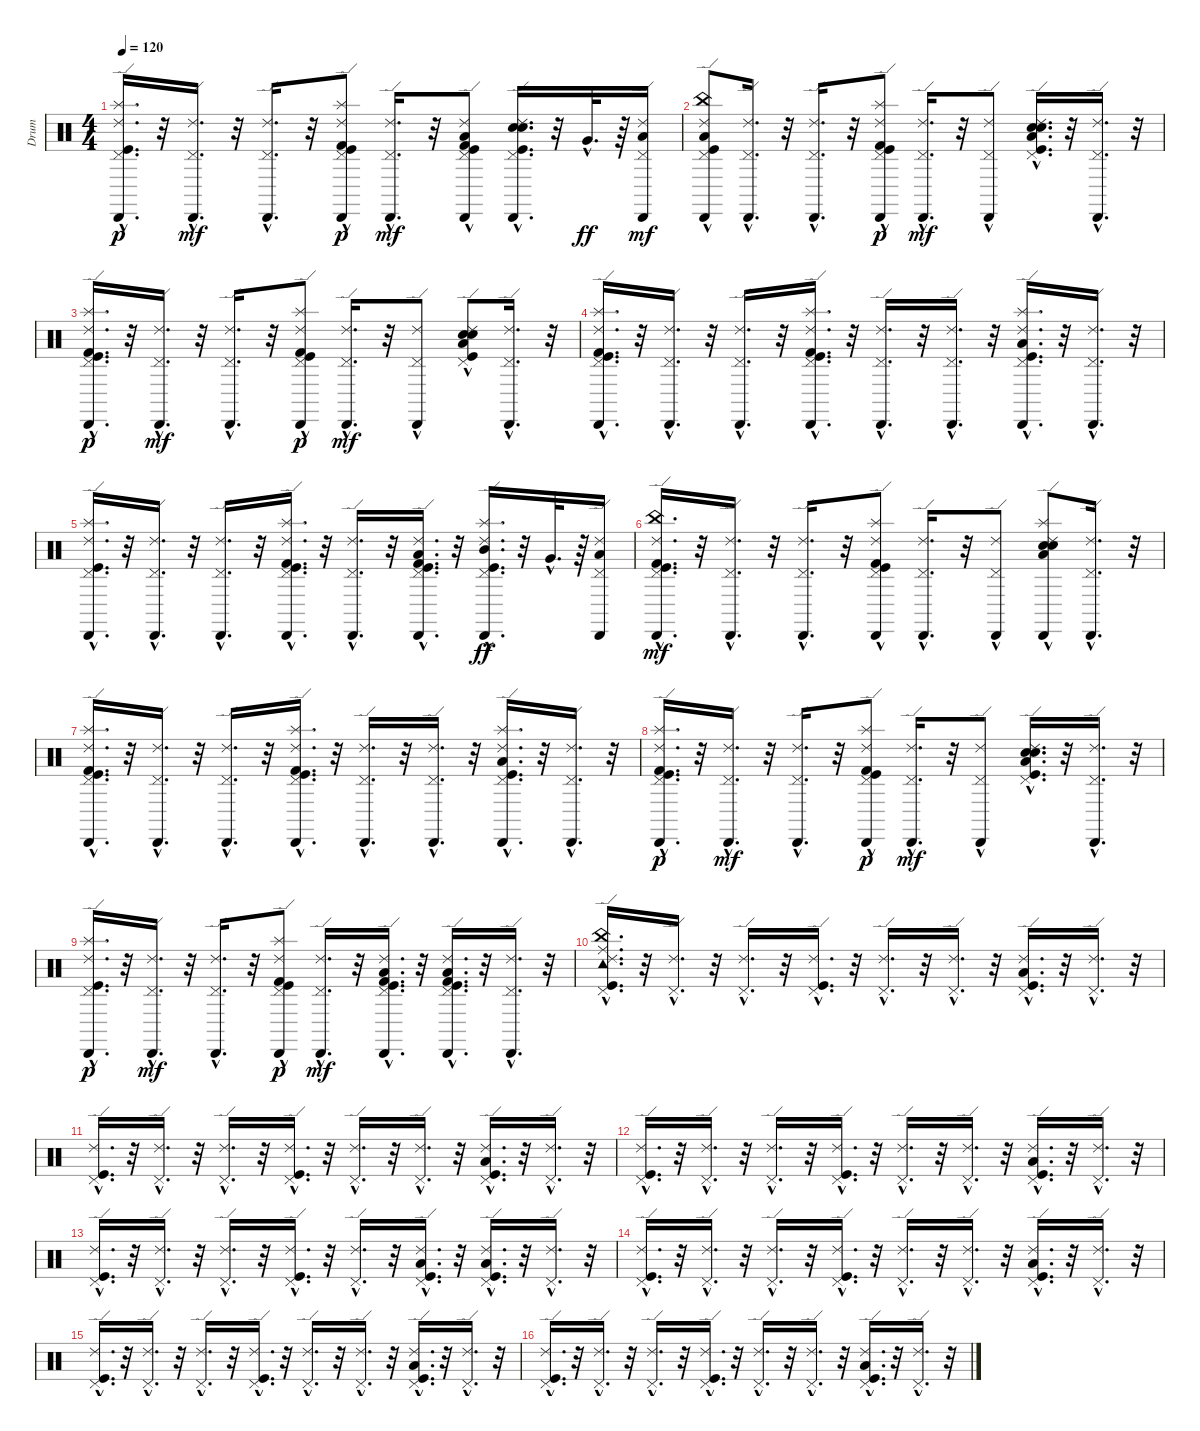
\track ("Drum" "Drum") {instrument percussion}
\staff {score}
\articulation defaults
\ts (4 4)
\tempo 120
\clef neutral
\ks c
("Pedal Hi-Hat (hit)"{hac} "Ride (edge) 2"{hac} "Cabasa (hit)"{hac} "Kick (hit)"{hac} "Splash (hit)"{hac}).16{d dy p} r.32 ("Pedal Hi-Hat (hit)"{hac} "Cabasa (hit)"{hac} "Ride (edge) 2"{hac}).16{d dy mf} r.32 ("Ride (edge) 2"{hac} "Pedal Hi-Hat (hit)"{hac} "Cabasa (hit)"{hac}).16{d} r.32 ("Pedal Hi-Hat (hit)"{hac} "Kick (hit)"{hac} "Ride (edge) 2"{hac} "Cabasa (hit)"{hac} "Kick (hit) 2"{hac} "Splash (hit)"{hac}).8{dy p} ("Ride (edge) 2"{hac} "Pedal Hi-Hat (hit)"{hac} "Cabasa (hit)"{hac}).16{d dy mf} r.32 ("Pedal Hi-Hat (hit)"{hac} "Kick (hit)"{hac} "Ride (edge) 2"{hac} "Kick (hit) 2"{hac} "Cabasa (hit)"{hac} "Low Tom (hit)"{hac}).8 ("Snare (hit) 2"{hac} "Electric Snare (hit)"{hac} "Cabasa (hit)"{hac} "Kick (hit)"{hac} "Ride (edge) 2"{hac} "Pedal Hi-Hat (hit)"{hac}).16{d} r.32 "Very Low Tom (hit)"{hac}.32{d dy ff} r.64 ("Ride (edge) 2" "Low Tom (hit)" "Pedal Hi-Hat (hit)" "Cabasa (hit)").16{dy mf} |
("Low Floor Tom (hit)" "Pedal Hi-Hat (hit)"{hac} "Kick (hit)"{hac} "Ride (edge) 2"{hac} "China (hit)"{hac} "Cabasa (hit)"{hac}).8 ("Pedal Hi-Hat (hit)"{hac} "Ride (edge) 2"{hac} "Cabasa (hit)"{hac}).16{d} r.32 ("Pedal Hi-Hat (hit)"{hac} "Ride (edge) 2"{hac} "Cabasa (hit)"{hac}).16{d} r.32 ("Pedal Hi-Hat (hit)"{hac} "Kick (hit)"{hac} "Ride (edge) 2"{hac} "Cabasa (hit)"{hac} "Kick (hit) 2"{hac} "Splash (hit)"{hac}).8{dy p} ("Pedal Hi-Hat (hit)"{hac} "Ride (edge) 2"{hac} "Cabasa (hit)"{hac}).16{d dy mf} r.32 ("Pedal Hi-Hat (hit)"{hac} "Ride (edge) 2"{hac} "Cabasa (hit)"{hac}).8 ("Pedal Hi-Hat (hit)"{hac} "Kick (hit)"{hac} "Low Tom (hit)"{hac} "Ride (edge) 2"{hac} "Snare (hit) 2"{hac} "Electric Snare (hit)"{hac}).16{d} r.32 ("Pedal Hi-Hat (hit)"{hac} "Ride (edge) 2"{hac} "Cabasa (hit)"{hac}).16{d} r.32 |
("Ride (edge) 2"{hac} "Kick (hit)"{hac} "Pedal Hi-Hat (hit)"{hac} "Cabasa (hit)"{hac} "Kick (hit) 2"{hac} "Splash (hit)"{hac}).16{d dy p} r.32 ("Ride (edge) 2"{hac} "Pedal Hi-Hat (hit)"{hac} "Cabasa (hit)"{hac}).16{d dy mf} r.32 ("Ride (edge) 2"{hac} "Pedal Hi-Hat (hit)"{hac} "Cabasa (hit)"{hac}).16{d} r.32 ("Ride (edge) 2"{hac} "Kick (hit)"{hac} "Pedal Hi-Hat (hit)"{hac} "Cabasa (hit)"{hac} "Kick (hit) 2"{hac} "Splash (hit)"{hac}).8{dy p} ("Ride (edge) 2"{hac} "Pedal Hi-Hat (hit)"{hac} "Cabasa (hit)"{hac}).16{d dy mf} r.32 ("Ride (edge) 2"{hac} "Pedal Hi-Hat (hit)"{hac} "Cabasa (hit)"{hac}).8 ("Electric Snare (hit)" "Snare (hit) 2" "Ride (edge) 2"{hac} "Low Tom (hit)"{hac} "Kick (hit)"{hac} "Pedal Hi-Hat (hit)"{hac}).8 ("Ride (edge) 2"{hac} "Pedal Hi-Hat (hit)"{hac} "Cabasa (hit)"{hac}).16{d} r.32 |
("Splash (hit)"{hac} "Kick (hit) 2"{hac} "Cabasa (hit)"{hac} "Pedal Hi-Hat (hit)"{hac} "Kick (hit)"{hac} "Ride (edge) 2"{hac}).16{d} r.32 ("Cabasa (hit)"{hac} "Pedal Hi-Hat (hit)"{hac} "Ride (edge) 2"{hac}).16{d} r.32 ("Cabasa (hit)"{hac} "Pedal Hi-Hat (hit)"{hac} "Ride (edge) 2"{hac}).16{d} r.32 ("Splash (hit)"{hac} "Kick (hit) 2"{hac} "Cabasa (hit)"{hac} "Pedal Hi-Hat (hit)"{hac} "Kick (hit)"{hac} "Ride (edge) 2"{hac}).16{d} r.32 ("Cabasa (hit)"{hac} "Pedal Hi-Hat (hit)"{hac} "Ride (edge) 2"{hac}).16{d} r.32 ("Cabasa (hit)"{hac} "Pedal Hi-Hat (hit)"{hac} "Ride (edge) 2"{hac}).16{d} r.32 ("Splash (hit)"{hac} "Cabasa (hit)"{hac} "Pedal Hi-Hat (hit)"{hac} "Kick (hit)"{hac} "Low Tom (hit)"{hac} "Ride (edge) 2"{hac}).16{d} r.32 ("Cabasa (hit)"{hac} "Pedal Hi-Hat (hit)"{hac} "Ride (edge) 2"{hac}).16{d} r.32 |
("Splash (hit)"{hac} "Cabasa (hit)"{hac} "Pedal Hi-Hat (hit)"{hac} "Kick (hit)"{hac} "Ride (edge) 2"{hac}).16{d} r.32 ("Cabasa (hit)"{hac} "Pedal Hi-Hat (hit)"{hac} "Ride (edge) 2"{hac}).16{d} r.32 ("Cabasa (hit)"{hac} "Pedal Hi-Hat (hit)"{hac} "Ride (edge) 2"{hac}).16{d} r.32 ("Splash (hit)"{hac} "Kick (hit) 2"{hac} "Cabasa (hit)"{hac} "Pedal Hi-Hat (hit)"{hac} "Kick (hit)"{hac} "Ride (edge) 2"{hac}).16{d} r.32 ("Cabasa (hit)"{hac} "Pedal Hi-Hat (hit)"{hac} "Ride (edge) 2"{hac}).16{d} r.32 ("Kick (hit) 2"{hac} "Cabasa (hit)"{hac} "Pedal Hi-Hat (hit)"{hac} "Ride (edge) 2"{hac} "Kick (hit)"{hac} "Low Tom (hit)"{hac}).16{d} r.32 ("Splash (hit)"{hac} "Cabasa (hit)"{hac} "Pedal Hi-Hat (hit)"{hac} "Kick (hit)"{hac} "Ride (edge) 2"{hac} "Mid Tom (hit)"{hac}).16{d dy ff} r.32 "Very Low Tom (hit)"{hac}.32{d} r.64 ("Cabasa (hit)" "Pedal Hi-Hat (hit)" "Ride (edge) 2" "Low Tom (hit)").16 |
("Kick (hit) 2"{hac} "Cabasa (hit)"{hac} "China (hit)"{hac} "Ride (edge) 2"{hac} "Kick (hit)"{hac} "Pedal Hi-Hat (hit)"{hac}).16{d dy mf} r.32 ("Cabasa (hit)"{hac} "Ride (edge) 2"{hac} "Pedal Hi-Hat (hit)"{hac}).16{d} r.32 ("Cabasa (hit)"{hac} "Ride (edge) 2"{hac} "Pedal Hi-Hat (hit)"{hac}).16{d} r.32 ("Splash (hit)"{hac} "Kick (hit) 2"{hac} "Cabasa (hit)"{hac} "Ride (edge) 2"{hac} "Kick (hit)"{hac} "Pedal Hi-Hat (hit)"{hac}).8 ("Cabasa (hit)"{hac} "Ride (edge) 2"{hac} "Pedal Hi-Hat (hit)"{hac}).16{d} r.32 ("Cabasa (hit)"{hac} "Ride (edge) 2"{hac} "Pedal Hi-Hat (hit)"{hac}).8 ("Splash (hit)"{hac} "Cabasa (hit)"{hac} "Electric Snare (hit)" "Snare (hit) 2" "Ride (edge) 2"{hac} "Low Tom (hit)"{hac}).8 ("Cabasa (hit)"{hac} "Ride (edge) 2"{hac} "Pedal Hi-Hat (hit)"{hac}).16{d} r.32 |
("Splash (hit)"{hac} "Kick (hit) 2"{hac} "Cabasa (hit)"{hac} "Pedal Hi-Hat (hit)"{hac} "Kick (hit)"{hac} "Ride (edge) 2"{hac}).16{d} r.32 ("Cabasa (hit)"{hac} "Pedal Hi-Hat (hit)"{hac} "Ride (edge) 2"{hac}).16{d} r.32 ("Cabasa (hit)"{hac} "Pedal Hi-Hat (hit)"{hac} "Ride (edge) 2"{hac}).16{d} r.32 ("Splash (hit)"{hac} "Kick (hit) 2"{hac} "Cabasa (hit)"{hac} "Pedal Hi-Hat (hit)"{hac} "Kick (hit)"{hac} "Ride (edge) 2"{hac}).16{d} r.32 ("Cabasa (hit)"{hac} "Pedal Hi-Hat (hit)"{hac} "Ride (edge) 2"{hac}).16{d} r.32 ("Cabasa (hit)"{hac} "Pedal Hi-Hat (hit)"{hac} "Ride (edge) 2"{hac}).16{d} r.32 ("Splash (hit)"{hac} "Cabasa (hit)"{hac} "Pedal Hi-Hat (hit)"{hac} "Kick (hit)"{hac} "Low Tom (hit)"{hac} "Ride (edge) 2"{hac}).16{d} r.32 ("Cabasa (hit)"{hac} "Pedal Hi-Hat (hit)"{hac} "Ride (edge) 2"{hac}).16{d} r.32 |
("Ride (edge) 2"{hac} "Kick (hit)"{hac} "Pedal Hi-Hat (hit)"{hac} "Cabasa (hit)"{hac} "Kick (hit) 2"{hac} "Splash (hit)"{hac}).16{d dy p} r.32 ("Ride (edge) 2"{hac} "Pedal Hi-Hat (hit)"{hac} "Cabasa (hit)"{hac}).16{d dy mf} r.32 ("Ride (edge) 2"{hac} "Pedal Hi-Hat (hit)"{hac} "Cabasa (hit)"{hac}).16{d} r.32 ("Ride (edge) 2"{hac} "Kick (hit)"{hac} "Pedal Hi-Hat (hit)"{hac} "Cabasa (hit)"{hac} "Kick (hit) 2"{hac} "Splash (hit)"{hac}).8{dy p} ("Ride (edge) 2"{hac} "Pedal Hi-Hat (hit)"{hac} "Cabasa (hit)"{hac}).16{d dy mf} r.32 ("Ride (edge) 2"{hac} "Pedal Hi-Hat (hit)"{hac} "Cabasa (hit)"{hac}).8 ("Electric Snare (hit)"{hac} "Snare (hit) 2"{hac} "Ride (edge) 2"{hac} "Low Tom (hit)"{hac} "Kick (hit)"{hac} "Pedal Hi-Hat (hit)"{hac}).16{d} r.32 ("Ride (edge) 2"{hac} "Pedal Hi-Hat (hit)"{hac} "Cabasa (hit)"{hac}).16{d} r.32 |
("Ride (edge) 2"{hac} "Kick (hit)"{hac} "Pedal Hi-Hat (hit)"{hac} "Cabasa (hit)"{hac} "Splash (hit)"{hac}).16{d dy p} r.32 ("Ride (edge) 2"{hac} "Pedal Hi-Hat (hit)"{hac} "Cabasa (hit)"{hac}).16{d dy mf} r.32 ("Ride (edge) 2"{hac} "Pedal Hi-Hat (hit)"{hac} "Cabasa (hit)"{hac}).16{d} r.32 ("Ride (edge) 2"{hac} "Kick (hit)"{hac} "Pedal Hi-Hat (hit)"{hac} "Cabasa (hit)"{hac} "Kick (hit) 2"{hac} "Splash (hit)"{hac}).8{dy p} ("Ride (edge) 2"{hac} "Pedal Hi-Hat (hit)"{hac} "Cabasa (hit)"{hac}).16{d dy mf} r.32 ("Low Tom (hit)"{hac} "Kick (hit)"{hac} "Ride (edge) 2"{hac} "Pedal Hi-Hat (hit)"{hac} "Cabasa (hit)"{hac} "Kick (hit) 2"{hac}).16{d} r.32 ("Kick (hit) 2"{hac} "Low Tom (hit)"{hac} "Ride (edge) 2"{hac} "Kick (hit)"{hac} "Pedal Hi-Hat (hit)"{hac} "Cabasa (hit)"{hac}).16{d} r.32 ("Cabasa (hit)"{hac} "Pedal Hi-Hat (hit)"{hac} "Ride (edge) 2"{hac}).16{d} r.32 |
("Ride (middle)"{hac} "Tambourine (hit)"{hac} "China (hit)"{hac} "Pedal Hi-Hat (hit)"{hac} "Kick (hit)"{hac} "Ride (edge) 2"{hac}).16{d} r.32 ("Pedal Hi-Hat (hit)"{hac} "Ride (edge) 2"{hac}).16{d} r.32 ("Pedal Hi-Hat (hit)"{hac} "Ride (edge) 2"{hac}).16{d} r.32 ("Pedal Hi-Hat (hit)"{hac} "Kick (hit)"{hac} "Ride (edge) 2"{hac}).16{d} r.32 ("Pedal Hi-Hat (hit)"{hac} "Ride (edge) 2"{hac}).16{d} r.32 ("Pedal Hi-Hat (hit)"{hac} "Ride (edge) 2"{hac}).16{d} r.32 ("Pedal Hi-Hat (hit)"{hac} "Kick (hit)"{hac} "Low Tom (hit)"{hac} "Ride (edge) 2"{hac}).16{d} r.32 ("Pedal Hi-Hat (hit)"{hac} "Ride (edge) 2"{hac}).16{d} r.32 |
("Ride (edge) 2"{hac} "Kick (hit)"{hac} "Pedal Hi-Hat (hit)"{hac}).16{d} r.32 ("Ride (edge) 2"{hac} "Pedal Hi-Hat (hit)"{hac}).16{d} r.32 ("Ride (edge) 2"{hac} "Pedal Hi-Hat (hit)"{hac}).16{d} r.32 ("Ride (edge) 2"{hac} "Kick (hit)"{hac} "Pedal Hi-Hat (hit)"{hac}).16{d} r.32 ("Ride (edge) 2"{hac} "Pedal Hi-Hat (hit)"{hac}).16{d} r.32 ("Ride (edge) 2"{hac} "Pedal Hi-Hat (hit)"{hac}).16{d} r.32 ("Ride (edge) 2"{hac} "Low Tom (hit)"{hac} "Kick (hit)"{hac} "Pedal Hi-Hat (hit)"{hac}).16{d} r.32 ("Ride (edge) 2"{hac} "Pedal Hi-Hat (hit)"{hac}).16{d} r.32 |
("Ride (edge) 2"{hac} "Kick (hit)"{hac} "Pedal Hi-Hat (hit)"{hac}).16{d} r.32 ("Ride (edge) 2"{hac} "Pedal Hi-Hat (hit)"{hac}).16{d} r.32 ("Ride (edge) 2"{hac} "Pedal Hi-Hat (hit)"{hac}).16{d} r.32 ("Ride (edge) 2"{hac} "Kick (hit)"{hac} "Pedal Hi-Hat (hit)"{hac}).16{d} r.32 ("Ride (edge) 2"{hac} "Pedal Hi-Hat (hit)"{hac}).16{d} r.32 ("Ride (edge) 2"{hac} "Pedal Hi-Hat (hit)"{hac}).16{d} r.32 ("Ride (edge) 2"{hac} "Low Tom (hit)"{hac} "Kick (hit)"{hac} "Pedal Hi-Hat (hit)"{hac}).16{d} r.32 ("Ride (edge) 2"{hac} "Pedal Hi-Hat (hit)"{hac}).16{d} r.32 |
("Ride (edge) 2"{hac} "Kick (hit)"{hac} "Pedal Hi-Hat (hit)"{hac}).16{d} r.32 ("Ride (edge) 2"{hac} "Pedal Hi-Hat (hit)"{hac}).16{d} r.32 ("Ride (edge) 2"{hac} "Pedal Hi-Hat (hit)"{hac}).16{d} r.32 ("Ride (edge) 2"{hac} "Kick (hit)"{hac} "Pedal Hi-Hat (hit)"{hac}).16{d} r.32 ("Ride (edge) 2"{hac} "Pedal Hi-Hat (hit)"{hac}).16{d} r.32 ("Ride (edge) 2"{hac} "Pedal Hi-Hat (hit)"{hac} "Kick (hit)"{hac} "Low Tom (hit)"{hac}).16{d} r.32 ("Ride (edge) 2"{hac} "Low Tom (hit)"{hac} "Kick (hit)"{hac} "Pedal Hi-Hat (hit)"{hac}).16{d} r.32 ("Ride (edge) 2"{hac} "Pedal Hi-Hat (hit)"{hac}).16{d} r.32 |
("Pedal Hi-Hat (hit)"{hac} "Kick (hit)"{hac} "Ride (edge) 2"{hac}).16{d} r.32 ("Pedal Hi-Hat (hit)"{hac} "Ride (edge) 2"{hac}).16{d} r.32 ("Pedal Hi-Hat (hit)"{hac} "Ride (edge) 2"{hac}).16{d} r.32 ("Pedal Hi-Hat (hit)"{hac} "Kick (hit)"{hac} "Ride (edge) 2"{hac}).16{d} r.32 ("Pedal Hi-Hat (hit)"{hac} "Ride (edge) 2"{hac}).16{d} r.32 ("Pedal Hi-Hat (hit)"{hac} "Ride (edge) 2"{hac}).16{d} r.32 ("Pedal Hi-Hat (hit)"{hac} "Kick (hit)"{hac} "Low Tom (hit)"{hac} "Ride (edge) 2"{hac}).16{d} r.32 ("Pedal Hi-Hat (hit)"{hac} "Ride (edge) 2"{hac}).16{d} r.32 |
("Ride (edge) 2"{hac} "Kick (hit)"{hac} "Pedal Hi-Hat (hit)"{hac}).16{d} r.32 ("Ride (edge) 2"{hac} "Pedal Hi-Hat (hit)"{hac}).16{d} r.32 ("Ride (edge) 2"{hac} "Pedal Hi-Hat (hit)"{hac}).16{d} r.32 ("Ride (edge) 2"{hac} "Kick (hit)"{hac} "Pedal Hi-Hat (hit)"{hac}).16{d} r.32 ("Ride (edge) 2"{hac} "Pedal Hi-Hat (hit)"{hac}).16{d} r.32 ("Ride (edge) 2"{hac} "Pedal Hi-Hat (hit)"{hac}).16{d} r.32 ("Ride (edge) 2"{hac} "Low Tom (hit)"{hac} "Kick (hit)"{hac} "Pedal Hi-Hat (hit)"{hac}).16{d} r.32 ("Ride (edge) 2"{hac} "Pedal Hi-Hat (hit)"{hac}).16{d} r.32 |
("Ride (edge) 2"{hac} "Kick (hit)"{hac} "Pedal Hi-Hat (hit)"{hac}).16{d} r.32 ("Ride (edge) 2"{hac} "Pedal Hi-Hat (hit)"{hac}).16{d} r.32 ("Ride (edge) 2"{hac} "Pedal Hi-Hat (hit)"{hac}).16{d} r.32 ("Ride (edge) 2"{hac} "Kick (hit)"{hac} "Pedal Hi-Hat (hit)"{hac}).16{d} r.32 ("Ride (edge) 2"{hac} "Pedal Hi-Hat (hit)"{hac}).16{d} r.32 ("Ride (edge) 2"{hac} "Pedal Hi-Hat (hit)"{hac}).16{d} r.32 ("Ride (edge) 2"{hac} "Low Tom (hit)"{hac} "Kick (hit)"{hac} "Pedal Hi-Hat (hit)"{hac}).16{d} r.32 ("Ride (edge) 2"{hac} "Pedal Hi-Hat (hit)"{hac}).16{d} r.32
